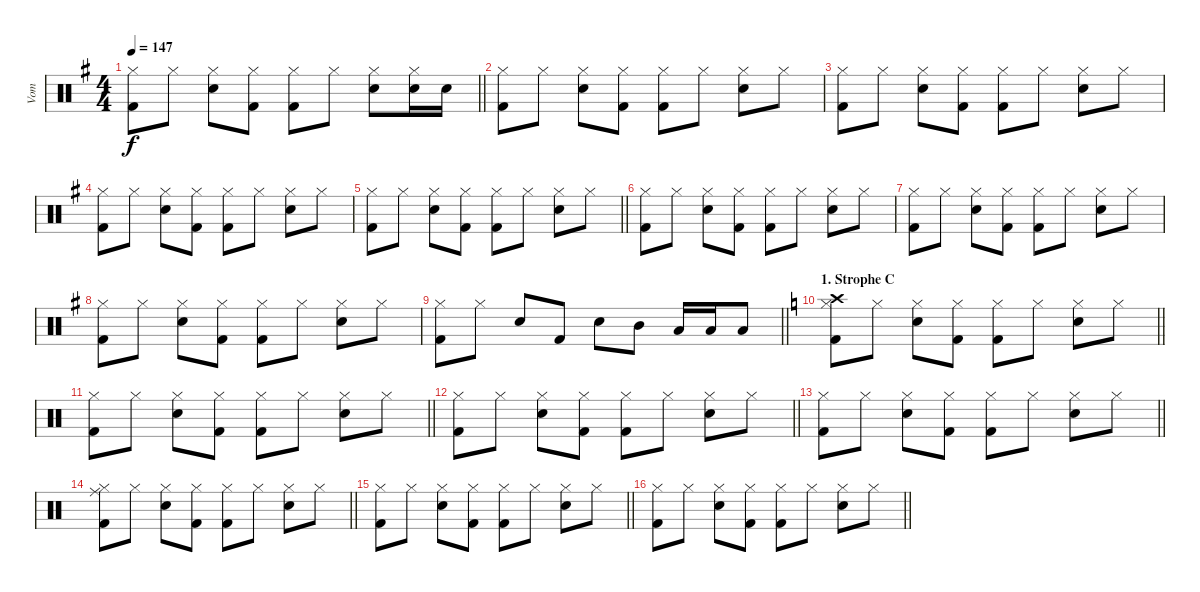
\track ("Vom" "Vom") {instrument percussion}
\staff {score}
\articulation defaults
\ts (4 4)
\tempo 147
\clef neutral
\barLineRight lightlight
\ks g
("Hi-Hat (closed)" "Kick (hit) 2").8{dy f} "Hi-Hat (closed)".8 ("Hi-Hat (closed)" "Snare (hit) 2").8 ("Hi-Hat (closed)" "Kick (hit) 2").8 ("Hi-Hat (closed)" "Kick (hit) 2").8 "Hi-Hat (closed)".8 ("Hi-Hat (closed)" "Snare (hit) 2").8 ("Hi-Hat (closed)" "Snare (hit) 2").16 "Snare (hit) 2".16 |
("Hi-Hat (closed)" "Kick (hit) 2").8 "Hi-Hat (closed)".8 ("Hi-Hat (closed)" "Snare (hit) 2").8 ("Hi-Hat (closed)" "Kick (hit) 2").8 ("Hi-Hat (closed)" "Kick (hit) 2").8 "Hi-Hat (closed)".8 ("Hi-Hat (closed)" "Snare (hit) 2").8 "Hi-Hat (closed)".8 |
("Hi-Hat (closed)" "Kick (hit) 2").8 "Hi-Hat (closed)".8 ("Hi-Hat (closed)" "Snare (hit) 2").8 ("Hi-Hat (closed)" "Kick (hit) 2").8 ("Hi-Hat (closed)" "Kick (hit) 2").8 "Hi-Hat (closed)".8 ("Hi-Hat (closed)" "Snare (hit) 2").8 "Hi-Hat (closed)".8 |
("Hi-Hat (closed)" "Kick (hit) 2").8 "Hi-Hat (closed)".8 ("Hi-Hat (closed)" "Snare (hit) 2").8 ("Hi-Hat (closed)" "Kick (hit) 2").8 ("Hi-Hat (closed)" "Kick (hit) 2").8 "Hi-Hat (closed)".8 ("Hi-Hat (closed)" "Snare (hit) 2").8 "Hi-Hat (closed)".8 |
\barLineRight lightlight
("Hi-Hat (closed)" "Kick (hit) 2").8 "Hi-Hat (closed)".8 ("Hi-Hat (closed)" "Snare (hit) 2").8 ("Hi-Hat (closed)" "Kick (hit) 2").8 ("Hi-Hat (closed)" "Kick (hit) 2").8 "Hi-Hat (closed)".8 ("Hi-Hat (closed)" "Snare (hit) 2").8 "Hi-Hat (closed)".8 |
("Hi-Hat (closed)" "Kick (hit) 2").8 "Hi-Hat (closed)".8 ("Hi-Hat (closed)" "Snare (hit) 2").8 ("Hi-Hat (closed)" "Kick (hit) 2").8 ("Hi-Hat (closed)" "Kick (hit) 2").8 "Hi-Hat (closed)".8 ("Hi-Hat (closed)" "Snare (hit) 2").8 "Hi-Hat (closed)".8 |
("Hi-Hat (closed)" "Kick (hit) 2").8 "Hi-Hat (closed)".8 ("Hi-Hat (closed)" "Snare (hit) 2").8 ("Hi-Hat (closed)" "Kick (hit) 2").8 ("Hi-Hat (closed)" "Kick (hit) 2").8 "Hi-Hat (closed)".8 ("Hi-Hat (closed)" "Snare (hit) 2").8 "Hi-Hat (closed)".8 |
("Hi-Hat (closed)" "Kick (hit) 2").8 "Hi-Hat (closed)".8 ("Hi-Hat (closed)" "Snare (hit) 2").8 ("Hi-Hat (closed)" "Kick (hit) 2").8 ("Hi-Hat (closed)" "Kick (hit) 2").8 "Hi-Hat (closed)".8 ("Hi-Hat (closed)" "Snare (hit) 2").8 "Hi-Hat (closed)".8 |
\barLineRight lightlight
("Hi-Hat (closed)" "Kick (hit) 2").8 "Hi-Hat (closed)".8 "Snare (hit) 2".8 "Kick (hit) 2".8 "Snare (hit) 2".8 "Mid Tom (hit)".8 "Low Tom (hit)".16 "Low Tom (hit)".16 "Low Tom (hit)".8 |
\section ("" "1. Strophe C")
\barLineRight lightlight
\ks c
("Crash high (hit)" "Hi-Hat (closed)" "Kick (hit) 2").8 "Hi-Hat (closed)".8 ("Hi-Hat (closed)" "Snare (hit) 2").8 ("Hi-Hat (closed)" "Kick (hit) 2").8 ("Hi-Hat (closed)" "Kick (hit) 2").8 "Hi-Hat (closed)".8 ("Hi-Hat (closed)" "Snare (hit) 2").8 "Hi-Hat (closed)".8 |
\barLineRight lightlight
("Hi-Hat (closed)" "Kick (hit) 2").8 "Hi-Hat (closed)".8 ("Hi-Hat (closed)" "Snare (hit) 2").8 ("Hi-Hat (closed)" "Kick (hit) 2").8 ("Hi-Hat (closed)" "Kick (hit) 2").8 "Hi-Hat (closed)".8 ("Hi-Hat (closed)" "Snare (hit) 2").8 "Hi-Hat (closed)".8 |
\barLineRight lightlight
("Hi-Hat (closed)" "Kick (hit) 2").8 "Hi-Hat (closed)".8 ("Hi-Hat (closed)" "Snare (hit) 2").8 ("Hi-Hat (closed)" "Kick (hit) 2").8 ("Hi-Hat (closed)" "Kick (hit) 2").8 "Hi-Hat (closed)".8 ("Hi-Hat (closed)" "Snare (hit) 2").8 "Hi-Hat (closed)".8 |
\barLineRight lightlight
("Hi-Hat (closed)" "Kick (hit) 2").8 "Hi-Hat (closed)".8 ("Hi-Hat (closed)" "Snare (hit) 2").8 ("Hi-Hat (closed)" "Kick (hit) 2").8 ("Hi-Hat (closed)" "Kick (hit) 2").8 "Hi-Hat (closed)".8 ("Hi-Hat (closed)" "Snare (hit) 2").8 "Hi-Hat (closed)".8 |
\barLineRight lightlight
("Ride (middle)" "Hi-Hat (closed)" "Kick (hit) 2").8 "Hi-Hat (closed)".8 ("Hi-Hat (closed)" "Snare (hit) 2").8 ("Hi-Hat (closed)" "Kick (hit) 2").8 ("Hi-Hat (closed)" "Kick (hit) 2").8 "Hi-Hat (closed)".8 ("Hi-Hat (closed)" "Snare (hit) 2").8 "Hi-Hat (closed)".8 |
\barLineRight lightlight
("Hi-Hat (closed)" "Kick (hit) 2").8 "Hi-Hat (closed)".8 ("Hi-Hat (closed)" "Snare (hit) 2").8 ("Hi-Hat (closed)" "Kick (hit) 2").8 ("Hi-Hat (closed)" "Kick (hit) 2").8 "Hi-Hat (closed)".8 ("Hi-Hat (closed)" "Snare (hit) 2").8 "Hi-Hat (closed)".8 |
\barLineRight lightlight
("Hi-Hat (closed)" "Kick (hit) 2").8 "Hi-Hat (closed)".8 ("Hi-Hat (closed)" "Snare (hit) 2").8 ("Hi-Hat (closed)" "Kick (hit) 2").8 ("Hi-Hat (closed)" "Kick (hit) 2").8 "Hi-Hat (closed)".8 ("Hi-Hat (closed)" "Snare (hit) 2").8 "Hi-Hat (closed)".8
